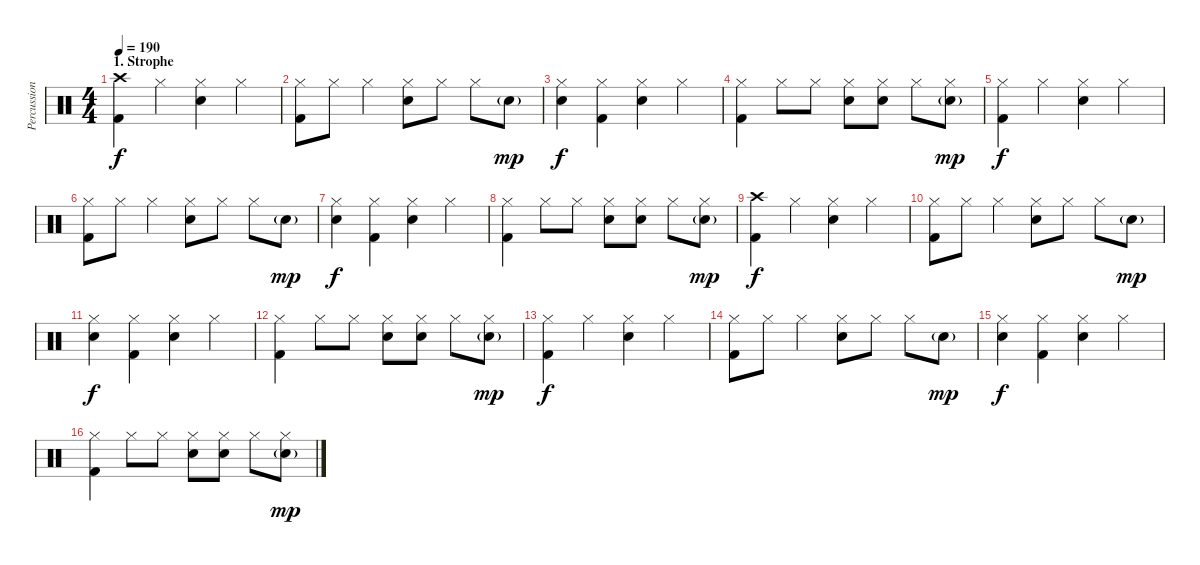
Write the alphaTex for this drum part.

\track ("Percussion" "Percussion") {instrument percussion}
\staff {score}
\articulation defaults
\ts (4 4)
\section ("" "1. Strophe")
\tempo 190
\clef neutral
\ks c
("Crash high (hit)" "Kick (hit) 2").4{dy f} "Hi-Hat (closed)".4 ("Hi-Hat (closed)" "Electric Snare (hit)").4 "Hi-Hat (closed)".4 |
("Hi-Hat (closed)" "Kick (hit) 2").8 "Hi-Hat (closed)".8 "Hi-Hat (closed)".4 ("Hi-Hat (closed)" "Electric Snare (hit)").8 "Hi-Hat (closed)".8 "Hi-Hat (closed)".8 "Electric Snare (hit)"{g}.8{dy mp} |
("Hi-Hat (closed)" "Electric Snare (hit)").4{dy f} ("Hi-Hat (closed)" "Kick (hit) 2").4 ("Hi-Hat (closed)" "Electric Snare (hit)").4 "Hi-Hat (closed)".4 |
("Hi-Hat (closed)" "Kick (hit) 2").4 "Hi-Hat (closed)".8 "Hi-Hat (closed)".8 ("Hi-Hat (closed)" "Electric Snare (hit)").8 ("Hi-Hat (closed)" "Electric Snare (hit)").8 "Hi-Hat (closed)".8 ("Hi-Hat (closed)" "Snare (hit) 2"{g}).8{dy mp} |
("Hi-Hat (closed)" "Kick (hit) 2").4{dy f} "Hi-Hat (closed)".4 ("Hi-Hat (closed)" "Electric Snare (hit)").4 "Hi-Hat (closed)".4 |
("Hi-Hat (closed)" "Kick (hit) 2").8 "Hi-Hat (closed)".8 "Hi-Hat (closed)".4 ("Hi-Hat (closed)" "Electric Snare (hit)").8 "Hi-Hat (closed)".8 "Hi-Hat (closed)".8 "Electric Snare (hit)"{g}.8{dy mp} |
("Hi-Hat (closed)" "Electric Snare (hit)").4{dy f} ("Hi-Hat (closed)" "Kick (hit) 2").4 ("Hi-Hat (closed)" "Electric Snare (hit)").4 "Hi-Hat (closed)".4 |
("Hi-Hat (closed)" "Kick (hit) 2").4 "Hi-Hat (closed)".8 "Hi-Hat (closed)".8 ("Hi-Hat (closed)" "Electric Snare (hit)").8 ("Hi-Hat (closed)" "Electric Snare (hit)").8 "Hi-Hat (closed)".8 ("Hi-Hat (closed)" "Electric Snare (hit)"{g}).8{dy mp} |
("Crash high (hit)" "Kick (hit) 2").4{dy f} "Hi-Hat (closed)".4 ("Hi-Hat (closed)" "Electric Snare (hit)").4 "Hi-Hat (closed)".4 |
("Hi-Hat (closed)" "Kick (hit) 2").8 "Hi-Hat (closed)".8 "Hi-Hat (closed)".4 ("Hi-Hat (closed)" "Electric Snare (hit)").8 "Hi-Hat (closed)".8 "Hi-Hat (closed)".8 "Electric Snare (hit)"{g}.8{dy mp} |
("Hi-Hat (closed)" "Electric Snare (hit)").4{dy f} ("Hi-Hat (closed)" "Kick (hit) 2").4 ("Hi-Hat (closed)" "Electric Snare (hit)").4 "Hi-Hat (closed)".4 |
("Hi-Hat (closed)" "Kick (hit) 2").4 "Hi-Hat (closed)".8 "Hi-Hat (closed)".8 ("Hi-Hat (closed)" "Electric Snare (hit)").8 ("Hi-Hat (closed)" "Electric Snare (hit)").8 "Hi-Hat (closed)".8 ("Hi-Hat (closed)" "Electric Snare (hit)"{g}).8{dy mp} |
("Hi-Hat (closed)" "Kick (hit) 2").4{dy f} "Hi-Hat (closed)".4 ("Hi-Hat (closed)" "Electric Snare (hit)").4 "Hi-Hat (closed)".4 |
("Hi-Hat (closed)" "Kick (hit) 2").8 "Hi-Hat (closed)".8 "Hi-Hat (closed)".4 ("Hi-Hat (closed)" "Electric Snare (hit)").8 "Hi-Hat (closed)".8 "Hi-Hat (closed)".8 "Electric Snare (hit)"{g}.8{dy mp} |
("Hi-Hat (closed)" "Electric Snare (hit)").4{dy f} ("Hi-Hat (closed)" "Kick (hit) 2").4 ("Hi-Hat (closed)" "Electric Snare (hit)").4 "Hi-Hat (closed)".4 |
("Hi-Hat (closed)" "Kick (hit) 2").4 "Hi-Hat (closed)".8 "Hi-Hat (closed)".8 ("Hi-Hat (closed)" "Electric Snare (hit)").8 ("Hi-Hat (closed)" "Electric Snare (hit)").8 "Hi-Hat (closed)".8 ("Hi-Hat (closed)" "Electric Snare (hit)"{g}).8{dy mp}
